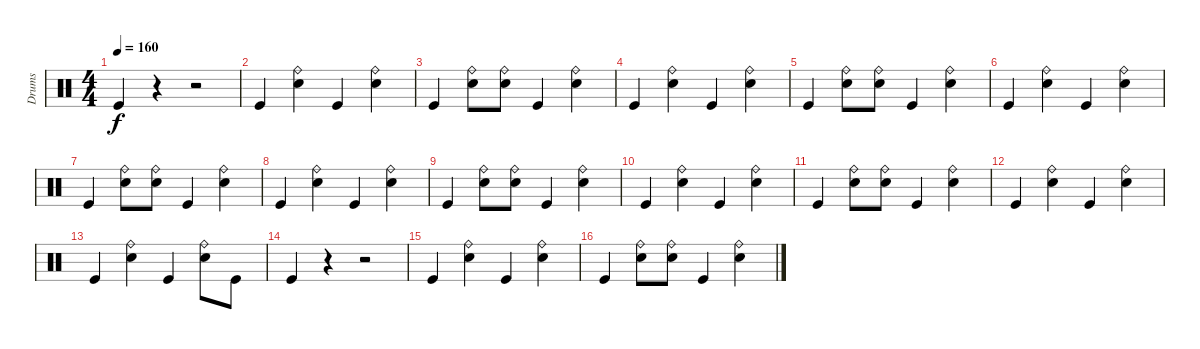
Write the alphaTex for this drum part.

\track ("Drums" "Drums") {instrument percussion}
\staff {score}
\articulation defaults
\ts (4 4)
\tempo 160
\clef neutral
\ks c "Kick (hit)".4{dy f}
r.4 r.2 |
"Kick (hit)".4 ("Snare (hit) 2" "Ride (bell)").4 "Kick (hit)".4 ("Snare (hit) 2" "Ride (bell)").4 |
"Kick (hit)".4 ("Snare (hit) 2" "Ride (bell)").8 ("Ride (bell)" "Snare (hit) 2").8 "Kick (hit)".4 ("Snare (hit) 2" "Ride (bell)").4 |
"Kick (hit)".4 ("Snare (hit) 2" "Ride (bell)").4 "Kick (hit)".4 ("Snare (hit) 2" "Ride (bell)").4 |
"Kick (hit)".4 ("Snare (hit) 2" "Ride (bell)").8 ("Ride (bell)" "Snare (hit) 2").8 "Kick (hit)".4 ("Snare (hit) 2" "Ride (bell)").4 |
"Kick (hit)".4 ("Snare (hit) 2" "Ride (bell)").4 "Kick (hit)".4 ("Snare (hit) 2" "Ride (bell)").4 |
"Kick (hit)".4 ("Snare (hit) 2" "Ride (bell)").8 ("Ride (bell)" "Snare (hit) 2").8 "Kick (hit)".4 ("Snare (hit) 2" "Ride (bell)").4 |
"Kick (hit)".4 ("Snare (hit) 2" "Ride (bell)").4 "Kick (hit)".4 ("Snare (hit) 2" "Ride (bell)").4 |
"Kick (hit)".4 ("Snare (hit) 2" "Ride (bell)").8 ("Ride (bell)" "Snare (hit) 2").8 "Kick (hit)".4 ("Snare (hit) 2" "Ride (bell)").4 |
"Kick (hit)".4 ("Snare (hit) 2" "Ride (bell)").4 "Kick (hit)".4 ("Snare (hit) 2" "Ride (bell)").4 |
"Kick (hit)".4 ("Snare (hit) 2" "Ride (bell)").8 ("Ride (bell)" "Snare (hit) 2").8 "Kick (hit)".4 ("Snare (hit) 2" "Ride (bell)").4 |
"Kick (hit)".4 ("Snare (hit) 2" "Ride (bell)").4 "Kick (hit)".4 ("Snare (hit) 2" "Ride (bell)").4 |
"Kick (hit)".4 ("Snare (hit) 2" "Ride (bell)").4 "Kick (hit)".4 ("Snare (hit) 2" "Ride (bell)").8 "Kick (hit)".8 |
"Kick (hit)".4 r.4 r.2 |
"Kick (hit)".4 ("Snare (hit) 2" "Ride (bell)").4 "Kick (hit)".4 ("Snare (hit) 2" "Ride (bell)").4 |
"Kick (hit)".4 ("Snare (hit) 2" "Ride (bell)").8 ("Ride (bell)" "Snare (hit) 2").8 "Kick (hit)".4 ("Snare (hit) 2" "Ride (bell)").4
